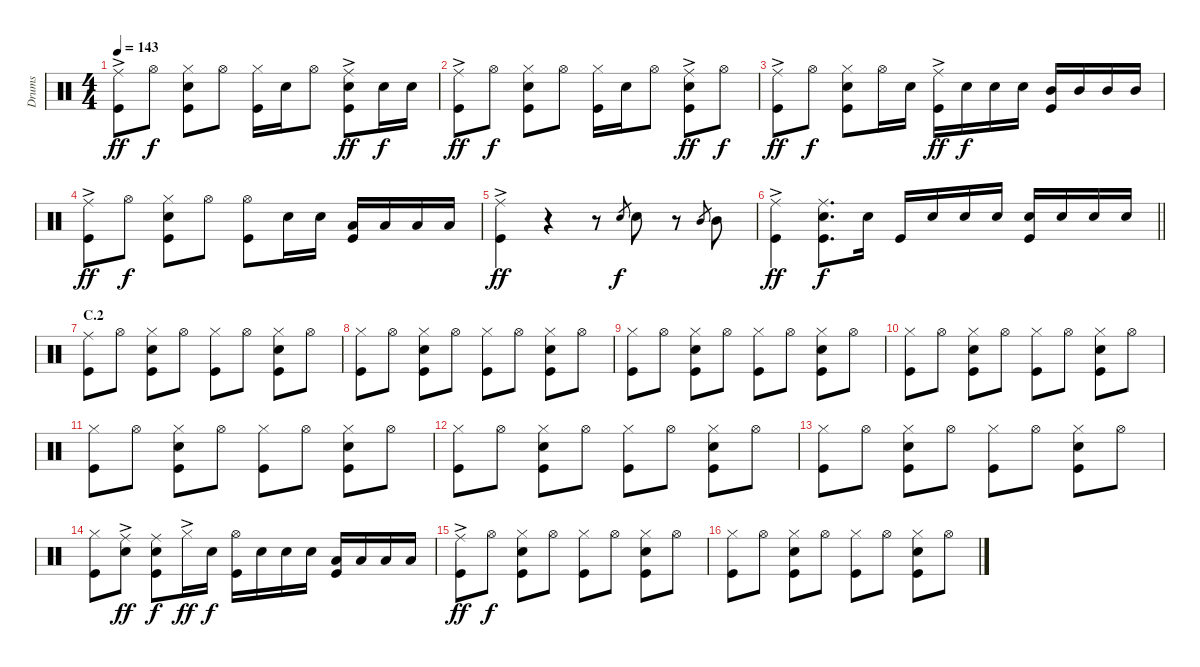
\track ("Drums" "Drums") {instrument percussion}
\staff {score}
\articulation defaults
\ts (4 4)
\tempo 143
\clef neutral
\ks c
("Ride (middle)"{ac} "Kick (hit)").8{dy ff} "Hi-Hat (open)".8{dy f} ("Hi-Hat (closed)" "Kick (hit)" "Snare (hit) 2").8 "Hi-Hat (open)".8 ("Hi-Hat (closed)" "Kick (hit)").16 "Snare (hit) 2".16 "Hi-Hat (open)".8 ("Ride (middle)"{ac} "Kick (hit)" "Snare (hit) 2").8{dy ff} "Snare (hit) 2".16{dy f} "Snare (hit) 2".16 |
("Ride (middle)"{ac} "Kick (hit)").8{dy ff} "Hi-Hat (open)".8{dy f} ("Hi-Hat (closed)" "Kick (hit)" "Snare (hit) 2").8 "Hi-Hat (open)".8 ("Hi-Hat (closed)" "Kick (hit)").16 "Snare (hit) 2".16 "Hi-Hat (open)".8 ("Ride (middle)"{ac} "Kick (hit)" "Snare (hit) 2").8{dy ff} "Hi-Hat (open)".8{dy f} |
("Ride (middle)"{ac} "Kick (hit)").8{dy ff} "Hi-Hat (open)".8{dy f} ("Hi-Hat (closed)" "Snare (hit) 2" "Kick (hit)").8 "Hi-Hat (open)".16 "Snare (hit) 2".16 ("Ride (middle)"{ac} "Kick (hit)").16{dy ff} "Snare (hit) 2".16{dy f} "Snare (hit) 2".16 "Snare (hit) 2".16 ("Mid Tom (hit)" "Kick (hit)").16 "Mid Tom (hit)".16 "Mid Tom (hit)".16 "Mid Tom (hit)".16 |
("Ride (middle)"{ac} "Kick (hit)").8{dy ff} "Hi-Hat (open)".8{dy f} ("Hi-Hat (closed)" "Kick (hit)" "Snare (hit) 2").8 "Hi-Hat (open)".8 ("Hi-Hat (open)" "Kick (hit)").8 "Snare (hit) 2".16 "Snare (hit) 2".16 ("Low Tom (hit)" "Kick (hit)").16 "Low Tom (hit)".16 "Low Tom (hit)".16 "Low Tom (hit)".16 |
("Ride (middle)"{ac} "Kick (hit)").4{dy ff} r.4 r.8 "Snare (hit) 2".8{gr dy f} "Snare (hit) 2".8 r.8 "Mid Tom (hit)".8{gr} "Mid Tom (hit)".8 |
\barLineRight lightlight
("Ride (middle)"{ac} "Kick (hit)").4{dy ff} ("Ride (middle)" "Kick (hit)" "Snare (hit) 2").8{d dy f} "Snare (hit) 2".16 "Kick (hit)".16 "Snare (hit) 2".16 "Snare (hit) 2".16 "Snare (hit) 2".16 ("Kick (hit)" "Snare (hit) 2").16 "Snare (hit) 2".16 "Snare (hit) 2".16 "Snare (hit) 2".16 |
\section ("" "C.2")
("Ride (middle)" "Kick (hit)").8 "Hi-Hat (open)".8 ("Hi-Hat (closed)" "Snare (hit) 2" "Kick (hit)").8 "Hi-Hat (open)".8 ("Hi-Hat (closed)" "Kick (hit)").8 "Hi-Hat (open)".8 ("Hi-Hat (closed)" "Snare (hit) 2" "Kick (hit)").8 "Hi-Hat (open)".8 |
("Hi-Hat (closed)" "Kick (hit)").8 "Hi-Hat (open)".8 ("Hi-Hat (closed)" "Kick (hit)" "Snare (hit) 2").8 "Hi-Hat (open)".8 ("Hi-Hat (closed)" "Kick (hit)").8 "Hi-Hat (open)".8 ("Hi-Hat (closed)" "Kick (hit)" "Snare (hit) 2").8 "Hi-Hat (open)".8 |
("Hi-Hat (closed)" "Kick (hit)").8 "Hi-Hat (open)".8 ("Hi-Hat (closed)" "Kick (hit)" "Snare (hit) 2").8 "Hi-Hat (open)".8 ("Hi-Hat (closed)" "Kick (hit)").8 "Hi-Hat (open)".8 ("Hi-Hat (closed)" "Kick (hit)" "Snare (hit) 2").8 "Hi-Hat (open)".8 |
("Hi-Hat (closed)" "Kick (hit)").8 "Hi-Hat (open)".8 ("Hi-Hat (closed)" "Kick (hit)" "Snare (hit) 2").8 "Hi-Hat (open)".8 ("Hi-Hat (closed)" "Kick (hit)").8 "Hi-Hat (open)".8 ("Hi-Hat (closed)" "Kick (hit)" "Snare (hit) 2").8 "Hi-Hat (open)".8 |
("Hi-Hat (closed)" "Kick (hit)").8 "Hi-Hat (open)".8 ("Hi-Hat (closed)" "Kick (hit)" "Snare (hit) 2").8 "Hi-Hat (open)".8 ("Hi-Hat (closed)" "Kick (hit)").8 "Hi-Hat (open)".8 ("Hi-Hat (closed)" "Kick (hit)" "Snare (hit) 2").8 "Hi-Hat (open)".8 |
("Hi-Hat (closed)" "Kick (hit)").8 "Hi-Hat (open)".8 ("Hi-Hat (closed)" "Kick (hit)" "Snare (hit) 2").8 "Hi-Hat (open)".8 ("Hi-Hat (closed)" "Kick (hit)").8 "Hi-Hat (open)".8 ("Hi-Hat (closed)" "Kick (hit)" "Snare (hit) 2").8 "Hi-Hat (open)".8 |
("Hi-Hat (closed)" "Kick (hit)").8 "Hi-Hat (open)".8 ("Hi-Hat (closed)" "Kick (hit)" "Snare (hit) 2").8 "Hi-Hat (open)".8 ("Hi-Hat (closed)" "Kick (hit)").8 "Hi-Hat (open)".8 ("Hi-Hat (closed)" "Kick (hit)" "Snare (hit) 2").8 "Hi-Hat (open)".8 |
("Hi-Hat (closed)" "Kick (hit)").8 ("Snare (hit) 2" "Ride (middle)"{ac}).8{dy ff} ("Ride (middle)" "Snare (hit) 2" "Kick (hit)").8{dy f} "Hi-Hat (closed)"{ac}.16{dy ff} "Snare (hit) 2".16{dy f} ("Hi-Hat (open)" "Kick (hit)").16 "Snare (hit) 2".16 "Snare (hit) 2".16 "Snare (hit) 2".16 ("Low Tom (hit)" "Kick (hit)").16 "Low Tom (hit)".16 "Low Tom (hit)".16 "Low Tom (hit)".16 |
("Ride (middle)"{ac} "Kick (hit)").8{dy ff} "Hi-Hat (open)".8{dy f} ("Hi-Hat (closed)" "Kick (hit)" "Snare (hit) 2").8 "Hi-Hat (open)".8 ("Hi-Hat (closed)" "Kick (hit)").8 "Hi-Hat (open)".8 ("Hi-Hat (closed)" "Kick (hit)" "Snare (hit) 2").8 "Hi-Hat (open)".8 |
("Hi-Hat (closed)" "Kick (hit)").8 "Hi-Hat (open)".8 ("Hi-Hat (closed)" "Kick (hit)" "Snare (hit) 2").8 "Hi-Hat (open)".8 ("Hi-Hat (closed)" "Kick (hit)").8 "Hi-Hat (open)".8 ("Hi-Hat (closed)" "Kick (hit)" "Snare (hit) 2").8 "Hi-Hat (open)".8
